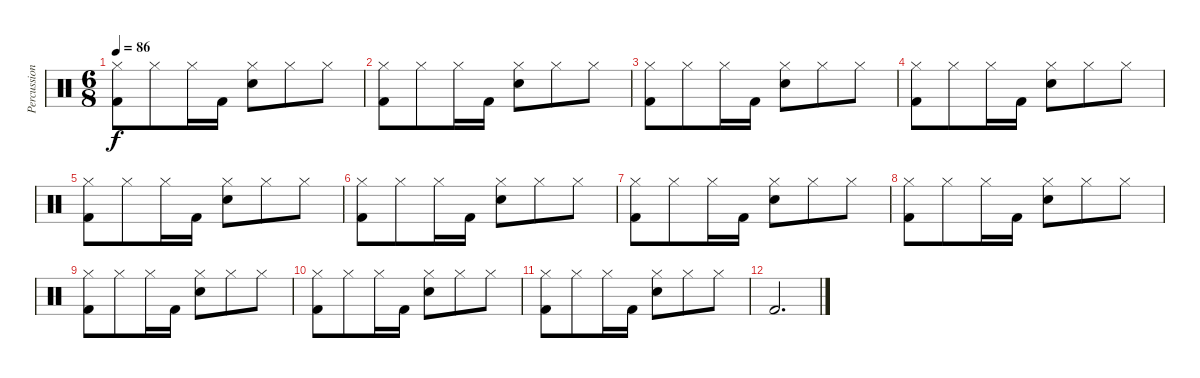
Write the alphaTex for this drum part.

\track ("Percussion" "Percussion") {instrument percussion}
\staff {score}
\articulation defaults
\ts (6 8)
\tempo 86
\clef neutral
\ks c
("Hi-Hat (closed)" "Kick (hit) 2").8{dy f} "Hi-Hat (closed)".8 "Hi-Hat (closed)".16 "Kick (hit) 2".16 ("Hi-Hat (closed)" "Snare (hit) 2").8 "Hi-Hat (closed)".8 "Hi-Hat (closed)".8 |
("Hi-Hat (closed)" "Kick (hit) 2").8 "Hi-Hat (closed)".8 "Hi-Hat (closed)".16 "Kick (hit) 2".16 ("Hi-Hat (closed)" "Snare (hit) 2").8 "Hi-Hat (closed)".8 "Hi-Hat (closed)".8 |
("Hi-Hat (closed)" "Kick (hit) 2").8 "Hi-Hat (closed)".8 "Hi-Hat (closed)".16 "Kick (hit) 2".16 ("Hi-Hat (closed)" "Snare (hit) 2").8 "Hi-Hat (closed)".8 "Hi-Hat (closed)".8 |
("Hi-Hat (closed)" "Kick (hit) 2").8 "Hi-Hat (closed)".8 "Hi-Hat (closed)".16 "Kick (hit) 2".16 ("Hi-Hat (closed)" "Snare (hit) 2").8 "Hi-Hat (closed)".8 "Hi-Hat (closed)".8 |
("Hi-Hat (closed)" "Kick (hit) 2").8 "Hi-Hat (closed)".8 "Hi-Hat (closed)".16 "Kick (hit) 2".16 ("Hi-Hat (closed)" "Snare (hit) 2").8 "Hi-Hat (closed)".8 "Hi-Hat (closed)".8 |
("Hi-Hat (closed)" "Kick (hit) 2").8 "Hi-Hat (closed)".8 "Hi-Hat (closed)".16 "Kick (hit) 2".16 ("Hi-Hat (closed)" "Snare (hit) 2").8 "Hi-Hat (closed)".8 "Hi-Hat (closed)".8 |
("Hi-Hat (closed)" "Kick (hit) 2").8 "Hi-Hat (closed)".8 "Hi-Hat (closed)".16 "Kick (hit) 2".16 ("Hi-Hat (closed)" "Snare (hit) 2").8 "Hi-Hat (closed)".8 "Hi-Hat (closed)".8 |
("Hi-Hat (closed)" "Kick (hit) 2").8 "Hi-Hat (closed)".8 "Hi-Hat (closed)".16 "Kick (hit) 2".16 ("Hi-Hat (closed)" "Snare (hit) 2").8 "Hi-Hat (closed)".8 "Hi-Hat (closed)".8 |
("Hi-Hat (closed)" "Kick (hit) 2").8 "Hi-Hat (closed)".8 "Hi-Hat (closed)".16 "Kick (hit) 2".16 ("Hi-Hat (closed)" "Snare (hit) 2").8 "Hi-Hat (closed)".8 "Hi-Hat (closed)".8 |
("Hi-Hat (closed)" "Kick (hit) 2").8 "Hi-Hat (closed)".8 "Hi-Hat (closed)".16 "Kick (hit) 2".16 ("Hi-Hat (closed)" "Snare (hit) 2").8 "Hi-Hat (closed)".8 "Hi-Hat (closed)".8 |
("Hi-Hat (closed)" "Kick (hit) 2").8 "Hi-Hat (closed)".8 "Hi-Hat (closed)".16 "Kick (hit) 2".16 ("Hi-Hat (closed)" "Snare (hit) 2").8 "Hi-Hat (closed)".8 "Hi-Hat (closed)".8 |
"Kick (hit) 2".2{d}
